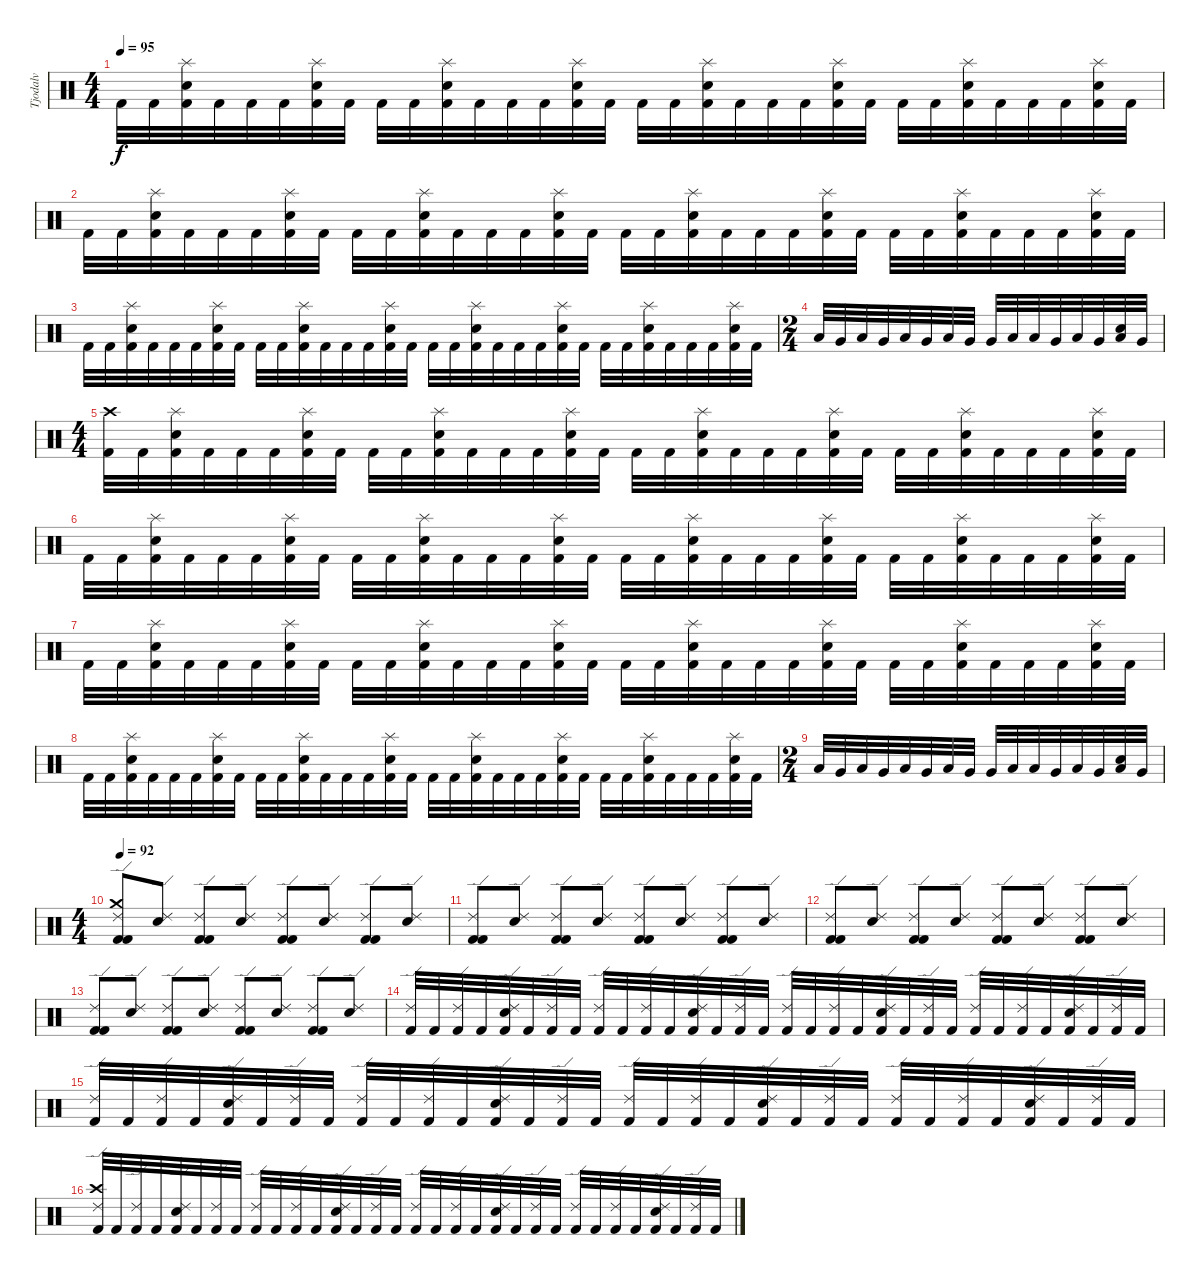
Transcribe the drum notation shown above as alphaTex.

\track ("Tjodalv" "Tjodalv") {instrument percussion}
\staff {score}
\articulation defaults
\ts (4 4)
\tempo 95
\clef neutral
\ks c "Kick (hit) 2".32{dy f} "Kick (hit) 2".32
("Kick (hit) 2" "Snare (hit) 2" "Splash (hit)").32 "Kick (hit) 2".32 "Kick (hit) 2".32 "Kick (hit) 2".32 ("Kick (hit) 2" "Snare (hit) 2" "Splash (hit)").32 "Kick (hit) 2".32 "Kick (hit) 2".32 "Kick (hit) 2".32 ("Kick (hit) 2" "Snare (hit) 2" "Splash (hit)").32 "Kick (hit) 2".32 "Kick (hit) 2".32 "Kick (hit) 2".32 ("Kick (hit) 2" "Snare (hit) 2" "Splash (hit)").32 "Kick (hit) 2".32 "Kick (hit) 2".32 "Kick (hit) 2".32 ("Kick (hit) 2" "Snare (hit) 2" "Splash (hit)").32 "Kick (hit) 2".32 "Kick (hit) 2".32 "Kick (hit) 2".32 ("Kick (hit) 2" "Snare (hit) 2" "Splash (hit)").32 "Kick (hit) 2".32 "Kick (hit) 2".32 "Kick (hit) 2".32 ("Kick (hit) 2" "Snare (hit) 2" "Splash (hit)").32 "Kick (hit) 2".32 "Kick (hit) 2".32 "Kick (hit) 2".32 ("Kick (hit) 2" "Snare (hit) 2" "Splash (hit)").32 "Kick (hit) 2".32 |
"Kick (hit) 2".32 "Kick (hit) 2".32 ("Kick (hit) 2" "Snare (hit) 2" "Splash (hit)").32 "Kick (hit) 2".32 "Kick (hit) 2".32 "Kick (hit) 2".32 ("Kick (hit) 2" "Snare (hit) 2" "Splash (hit)").32 "Kick (hit) 2".32 "Kick (hit) 2".32 "Kick (hit) 2".32 ("Kick (hit) 2" "Snare (hit) 2" "Splash (hit)").32 "Kick (hit) 2".32 "Kick (hit) 2".32 "Kick (hit) 2".32 ("Kick (hit) 2" "Snare (hit) 2" "Splash (hit)").32 "Kick (hit) 2".32 "Kick (hit) 2".32 "Kick (hit) 2".32 ("Kick (hit) 2" "Snare (hit) 2" "Splash (hit)").32 "Kick (hit) 2".32 "Kick (hit) 2".32 "Kick (hit) 2".32 ("Kick (hit) 2" "Snare (hit) 2" "Splash (hit)").32 "Kick (hit) 2".32 "Kick (hit) 2".32 "Kick (hit) 2".32 ("Kick (hit) 2" "Snare (hit) 2" "Splash (hit)").32 "Kick (hit) 2".32 "Kick (hit) 2".32 "Kick (hit) 2".32 ("Kick (hit) 2" "Snare (hit) 2" "Splash (hit)").32 "Kick (hit) 2".32 |
"Kick (hit) 2".32 "Kick (hit) 2".32 ("Kick (hit) 2" "Snare (hit) 2" "Splash (hit)").32 "Kick (hit) 2".32 "Kick (hit) 2".32 "Kick (hit) 2".32 ("Kick (hit) 2" "Snare (hit) 2" "Splash (hit)").32 "Kick (hit) 2".32 "Kick (hit) 2".32 "Kick (hit) 2".32 ("Kick (hit) 2" "Snare (hit) 2" "Splash (hit)").32 "Kick (hit) 2".32 "Kick (hit) 2".32 "Kick (hit) 2".32 ("Kick (hit) 2" "Snare (hit) 2" "Splash (hit)").32 "Kick (hit) 2".32 "Kick (hit) 2".32 "Kick (hit) 2".32 ("Kick (hit) 2" "Snare (hit) 2" "Splash (hit)").32 "Kick (hit) 2".32 "Kick (hit) 2".32 "Kick (hit) 2".32 ("Kick (hit) 2" "Snare (hit) 2" "Splash (hit)").32 "Kick (hit) 2".32 "Kick (hit) 2".32 "Kick (hit) 2".32 ("Kick (hit) 2" "Snare (hit) 2" "Splash (hit)").32 "Kick (hit) 2".32 "Kick (hit) 2".32 "Kick (hit) 2".32 ("Kick (hit) 2" "Snare (hit) 2" "Splash (hit)").32 "Kick (hit) 2".32 |
\ts (2 4)
"Low Tom (hit)".32 "Very Low Tom (hit)".32 "Low Floor Tom (hit)".32 "Very Low Tom (hit)".32 "Low Tom (hit)".32 "Very Low Tom (hit)".32 "Low Floor Tom (hit)".32 "Very Low Tom (hit)".32 "Very Low Tom (hit)".32 "Low Tom (hit)".32 "Low Floor Tom (hit)".32 "Very Low Tom (hit)".32 "Low Floor Tom (hit)".32 "Very Low Tom (hit)".32 ("Low Tom (hit)" "Snare (hit) 2").32 "Very Low Tom (hit)".32 |
\ts (4 4)
("Kick (hit) 2" "Crash high (hit)").32 "Kick (hit) 2".32 ("Kick (hit) 2" "Snare (hit) 2" "Splash (hit)").32 "Kick (hit) 2".32 "Kick (hit) 2".32 "Kick (hit) 2".32 ("Kick (hit) 2" "Snare (hit) 2" "Splash (hit)").32 "Kick (hit) 2".32 "Kick (hit) 2".32 "Kick (hit) 2".32 ("Kick (hit) 2" "Snare (hit) 2" "Splash (hit)").32 "Kick (hit) 2".32 "Kick (hit) 2".32 "Kick (hit) 2".32 ("Kick (hit) 2" "Snare (hit) 2" "Splash (hit)").32 "Kick (hit) 2".32 "Kick (hit) 2".32 "Kick (hit) 2".32 ("Kick (hit) 2" "Snare (hit) 2" "Splash (hit)").32 "Kick (hit) 2".32 "Kick (hit) 2".32 "Kick (hit) 2".32 ("Kick (hit) 2" "Snare (hit) 2" "Splash (hit)").32 "Kick (hit) 2".32 "Kick (hit) 2".32 "Kick (hit) 2".32 ("Kick (hit) 2" "Snare (hit) 2" "Splash (hit)").32 "Kick (hit) 2".32 "Kick (hit) 2".32 "Kick (hit) 2".32 ("Kick (hit) 2" "Snare (hit) 2" "Splash (hit)").32 "Kick (hit) 2".32 |
"Kick (hit) 2".32 "Kick (hit) 2".32 ("Kick (hit) 2" "Snare (hit) 2" "Splash (hit)").32 "Kick (hit) 2".32 "Kick (hit) 2".32 "Kick (hit) 2".32 ("Kick (hit) 2" "Snare (hit) 2" "Splash (hit)").32 "Kick (hit) 2".32 "Kick (hit) 2".32 "Kick (hit) 2".32 ("Kick (hit) 2" "Snare (hit) 2" "Splash (hit)").32 "Kick (hit) 2".32 "Kick (hit) 2".32 "Kick (hit) 2".32 ("Kick (hit) 2" "Snare (hit) 2" "Splash (hit)").32 "Kick (hit) 2".32 "Kick (hit) 2".32 "Kick (hit) 2".32 ("Kick (hit) 2" "Snare (hit) 2" "Splash (hit)").32 "Kick (hit) 2".32 "Kick (hit) 2".32 "Kick (hit) 2".32 ("Kick (hit) 2" "Snare (hit) 2" "Splash (hit)").32 "Kick (hit) 2".32 "Kick (hit) 2".32 "Kick (hit) 2".32 ("Kick (hit) 2" "Snare (hit) 2" "Splash (hit)").32 "Kick (hit) 2".32 "Kick (hit) 2".32 "Kick (hit) 2".32 ("Kick (hit) 2" "Snare (hit) 2" "Splash (hit)").32 "Kick (hit) 2".32 |
"Kick (hit) 2".32 "Kick (hit) 2".32 ("Kick (hit) 2" "Snare (hit) 2" "Splash (hit)").32 "Kick (hit) 2".32 "Kick (hit) 2".32 "Kick (hit) 2".32 ("Kick (hit) 2" "Snare (hit) 2" "Splash (hit)").32 "Kick (hit) 2".32 "Kick (hit) 2".32 "Kick (hit) 2".32 ("Kick (hit) 2" "Snare (hit) 2" "Splash (hit)").32 "Kick (hit) 2".32 "Kick (hit) 2".32 "Kick (hit) 2".32 ("Kick (hit) 2" "Snare (hit) 2" "Splash (hit)").32 "Kick (hit) 2".32 "Kick (hit) 2".32 "Kick (hit) 2".32 ("Kick (hit) 2" "Snare (hit) 2" "Splash (hit)").32 "Kick (hit) 2".32 "Kick (hit) 2".32 "Kick (hit) 2".32 ("Kick (hit) 2" "Snare (hit) 2" "Splash (hit)").32 "Kick (hit) 2".32 "Kick (hit) 2".32 "Kick (hit) 2".32 ("Kick (hit) 2" "Snare (hit) 2" "Splash (hit)").32 "Kick (hit) 2".32 "Kick (hit) 2".32 "Kick (hit) 2".32 ("Kick (hit) 2" "Snare (hit) 2" "Splash (hit)").32 "Kick (hit) 2".32 |
"Kick (hit) 2".32 "Kick (hit) 2".32 ("Kick (hit) 2" "Snare (hit) 2" "Splash (hit)").32 "Kick (hit) 2".32 "Kick (hit) 2".32 "Kick (hit) 2".32 ("Kick (hit) 2" "Snare (hit) 2" "Splash (hit)").32 "Kick (hit) 2".32 "Kick (hit) 2".32 "Kick (hit) 2".32 ("Kick (hit) 2" "Snare (hit) 2" "Splash (hit)").32 "Kick (hit) 2".32 "Kick (hit) 2".32 "Kick (hit) 2".32 ("Kick (hit) 2" "Snare (hit) 2" "Splash (hit)").32 "Kick (hit) 2".32 "Kick (hit) 2".32 "Kick (hit) 2".32 ("Kick (hit) 2" "Snare (hit) 2" "Splash (hit)").32 "Kick (hit) 2".32 "Kick (hit) 2".32 "Kick (hit) 2".32 ("Kick (hit) 2" "Snare (hit) 2" "Splash (hit)").32 "Kick (hit) 2".32 "Kick (hit) 2".32 "Kick (hit) 2".32 ("Kick (hit) 2" "Snare (hit) 2" "Splash (hit)").32 "Kick (hit) 2".32 "Kick (hit) 2".32 "Kick (hit) 2".32 ("Kick (hit) 2" "Snare (hit) 2" "Splash (hit)").32 "Kick (hit) 2".32 |
\ts (2 4)
"Low Tom (hit)".32 "Very Low Tom (hit)".32 "Low Floor Tom (hit)".32 "Very Low Tom (hit)".32 "Low Tom (hit)".32 "Very Low Tom (hit)".32 "Low Floor Tom (hit)".32 "Very Low Tom (hit)".32 "Very Low Tom (hit)".32 "Low Tom (hit)".32 "Low Floor Tom (hit)".32 "Very Low Tom (hit)".32 "Low Floor Tom (hit)".32 "Very Low Tom (hit)".32 ("Low Tom (hit)" "Snare (hit) 2").32 "Very Low Tom (hit)".32 |
\ts (4 4)
\tempo 92
("Kick (hit) 2" "Kick (hit) 2" "Crash medium (hit)" "Ride (edge) 2").8 ("Snare (hit) 2" "Ride (edge) 2").8 ("Kick (hit) 2" "Kick (hit) 2" "Ride (edge) 2").8 ("Snare (hit) 2" "Ride (edge) 2").8 ("Kick (hit) 2" "Kick (hit) 2" "Ride (edge) 2").8 ("Snare (hit) 2" "Ride (edge) 2").8 ("Kick (hit) 2" "Kick (hit) 2" "Ride (edge) 2").8 ("Snare (hit) 2" "Ride (edge) 2").8 |
("Kick (hit) 2" "Kick (hit) 2" "Ride (edge) 2").8 ("Snare (hit) 2" "Ride (edge) 2").8 ("Kick (hit) 2" "Kick (hit) 2" "Ride (edge) 2").8 ("Snare (hit) 2" "Ride (edge) 2").8 ("Kick (hit) 2" "Kick (hit) 2" "Ride (edge) 2").8 ("Snare (hit) 2" "Ride (edge) 2").8 ("Kick (hit) 2" "Kick (hit) 2" "Ride (edge) 2").8 ("Snare (hit) 2" "Ride (edge) 2").8 |
("Kick (hit) 2" "Kick (hit) 2" "Ride (edge) 2").8 ("Snare (hit) 2" "Ride (edge) 2").8 ("Kick (hit) 2" "Kick (hit) 2" "Ride (edge) 2").8 ("Snare (hit) 2" "Ride (edge) 2").8 ("Kick (hit) 2" "Kick (hit) 2" "Ride (edge) 2").8 ("Snare (hit) 2" "Ride (edge) 2").8 ("Kick (hit) 2" "Kick (hit) 2" "Ride (edge) 2").8 ("Snare (hit) 2" "Ride (edge) 2").8 |
("Kick (hit) 2" "Kick (hit) 2" "Ride (edge) 2").8 ("Snare (hit) 2" "Ride (edge) 2").8 ("Kick (hit) 2" "Kick (hit) 2" "Ride (edge) 2").8 ("Snare (hit) 2" "Ride (edge) 2").8 ("Kick (hit) 2" "Kick (hit) 2" "Ride (edge) 2").8 ("Snare (hit) 2" "Ride (edge) 2").8 ("Kick (hit) 2" "Kick (hit) 2" "Ride (edge) 2").8 ("Snare (hit) 2" "Ride (edge) 2").8 |
("Kick (hit) 2" "Ride (edge) 2").32 "Kick (hit) 2".32 ("Kick (hit) 2" "Ride (edge) 2").32 "Kick (hit) 2".32 ("Kick (hit) 2" "Snare (hit) 2" "Ride (edge) 2").32 "Kick (hit) 2".32 ("Kick (hit) 2" "Ride (edge) 2").32 "Kick (hit) 2".32 ("Kick (hit) 2" "Ride (edge) 2").32 "Kick (hit) 2".32 ("Kick (hit) 2" "Ride (edge) 2").32 "Kick (hit) 2".32 ("Kick (hit) 2" "Snare (hit) 2" "Ride (edge) 2").32 "Kick (hit) 2".32 ("Kick (hit) 2" "Ride (edge) 2").32 "Kick (hit) 2".32 ("Kick (hit) 2" "Ride (edge) 2").32 "Kick (hit) 2".32 ("Kick (hit) 2" "Ride (edge) 2").32 "Kick (hit) 2".32 ("Kick (hit) 2" "Snare (hit) 2" "Ride (edge) 2").32 "Kick (hit) 2".32 ("Kick (hit) 2" "Ride (edge) 2").32 "Kick (hit) 2".32 ("Kick (hit) 2" "Ride (edge) 2").32 "Kick (hit) 2".32 ("Kick (hit) 2" "Ride (edge) 2").32 "Kick (hit) 2".32 ("Kick (hit) 2" "Snare (hit) 2" "Ride (edge) 2").32 "Kick (hit) 2".32 ("Kick (hit) 2" "Ride (edge) 2").32 "Kick (hit) 2".32 |
("Kick (hit) 2" "Ride (edge) 2").32 "Kick (hit) 2".32 ("Kick (hit) 2" "Ride (edge) 2").32 "Kick (hit) 2".32 ("Kick (hit) 2" "Snare (hit) 2" "Ride (edge) 2").32 "Kick (hit) 2".32 ("Kick (hit) 2" "Ride (edge) 2").32 "Kick (hit) 2".32 ("Kick (hit) 2" "Ride (edge) 2").32 "Kick (hit) 2".32 ("Kick (hit) 2" "Ride (edge) 2").32 "Kick (hit) 2".32 ("Kick (hit) 2" "Snare (hit) 2" "Ride (edge) 2").32 "Kick (hit) 2".32 ("Kick (hit) 2" "Ride (edge) 2").32 "Kick (hit) 2".32 ("Kick (hit) 2" "Ride (edge) 2").32 "Kick (hit) 2".32 ("Kick (hit) 2" "Ride (edge) 2").32 "Kick (hit) 2".32 ("Kick (hit) 2" "Snare (hit) 2" "Ride (edge) 2").32 "Kick (hit) 2".32 ("Kick (hit) 2" "Ride (edge) 2").32 "Kick (hit) 2".32 ("Kick (hit) 2" "Ride (edge) 2").32 "Kick (hit) 2".32 ("Kick (hit) 2" "Ride (edge) 2").32 "Kick (hit) 2".32 ("Kick (hit) 2" "Snare (hit) 2" "Ride (edge) 2").32 "Kick (hit) 2".32 ("Kick (hit) 2" "Ride (edge) 2").32 "Kick (hit) 2".32 |
("Kick (hit) 2" "Crash high (hit)" "Ride (edge) 2").32 "Kick (hit) 2".32 ("Kick (hit) 2" "Ride (edge) 2").32 "Kick (hit) 2".32 ("Kick (hit) 2" "Snare (hit) 2" "Ride (edge) 2").32 "Kick (hit) 2".32 ("Kick (hit) 2" "Ride (edge) 2").32 "Kick (hit) 2".32 ("Kick (hit) 2" "Ride (edge) 2").32 "Kick (hit) 2".32 ("Kick (hit) 2" "Ride (edge) 2").32 "Kick (hit) 2".32 ("Kick (hit) 2" "Snare (hit) 2" "Ride (edge) 2").32 "Kick (hit) 2".32 ("Kick (hit) 2" "Ride (edge) 2").32 "Kick (hit) 2".32 ("Kick (hit) 2" "Ride (edge) 2").32 "Kick (hit) 2".32 ("Kick (hit) 2" "Ride (edge) 2").32 "Kick (hit) 2".32 ("Kick (hit) 2" "Snare (hit) 2" "Ride (edge) 2").32 "Kick (hit) 2".32 ("Kick (hit) 2" "Ride (edge) 2").32 "Kick (hit) 2".32 ("Kick (hit) 2" "Ride (edge) 2").32 "Kick (hit) 2".32 ("Kick (hit) 2" "Ride (edge) 2").32 "Kick (hit) 2".32 ("Kick (hit) 2" "Snare (hit) 2" "Ride (edge) 2").32 "Kick (hit) 2".32 ("Kick (hit) 2" "Ride (edge) 2").32 "Kick (hit) 2".32
